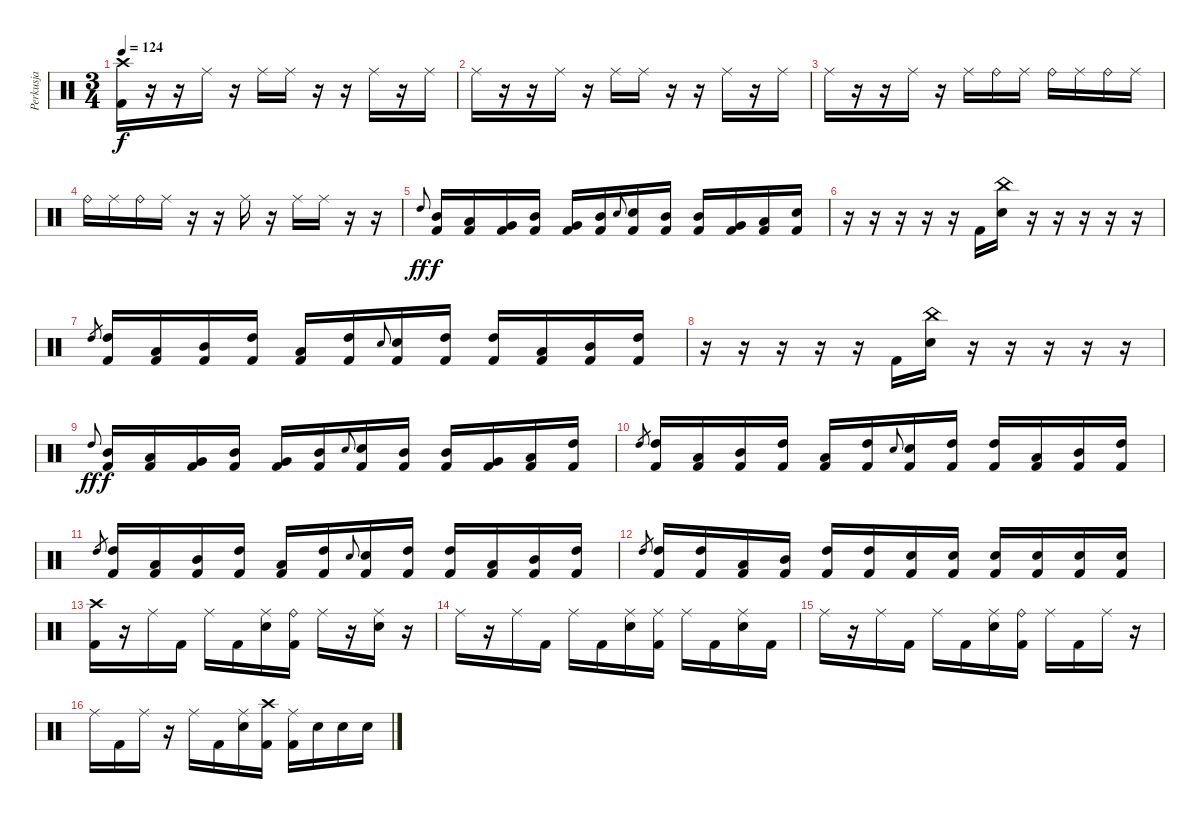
\track ("Perkusja" "Perkusja") {instrument percussion}
\staff {score}
\articulation defaults
\ts (3 4)
\tempo 124
\clef neutral
\ks c
("Kick (hit) 2" "Crash high (hit)").16{dy f} r.16 r.16 "Ride (middle)".16 r.16 "Ride (middle)".16 "Ride (middle)".16 r.16 r.16 "Ride (middle)".16 r.16 "Ride (middle)".16 |
"Ride (middle)".16 r.16 r.16 "Ride (middle)".16 r.16 "Ride (middle)".16 "Ride (middle)".16 r.16 r.16 "Ride (middle)".16 r.16 "Ride (middle)".16 |
"Ride (middle)".16 r.16 r.16 "Ride (middle)".16 r.16 "Ride (middle)".16 "Ride (bell)".16 "Ride (middle)".16 "Ride (bell)".16 "Ride (middle)".16 "Ride (bell)".16 "Ride (middle)".16 |
"Ride (bell)".16 "Ride (middle)".16 "Ride (bell)".16 "Ride (middle)".16 r.16 r.16 "Ride (middle)".16 r.16 "Ride (middle)".16 "Ride (middle)".16 r.16 r.16 |
"High Tom (hit)".8{gr onbeat dy ff} ("Kick (hit) 2" "Mid Tom (hit)").16{dy f} ("Kick (hit) 2" "Low Tom (hit)").16 ("Kick (hit) 2" "Very Low Tom (hit)").16 ("Kick (hit) 2" "Mid Tom (hit)").16 ("Kick (hit) 2" "Very Low Tom (hit)").16 ("Kick (hit) 2" "Mid Tom (hit)").16 "Electric Snare (hit)".8{gr onbeat} ("Kick (hit) 2" "Electric Snare (hit)").16 ("Kick (hit) 2" "Mid Tom (hit)").16 ("Kick (hit) 2" "Mid Tom (hit)").16 ("Kick (hit) 2" "Very Low Tom (hit)").16 ("Kick (hit) 2" "Low Tom (hit)").16 ("Kick (hit) 2" "Electric Snare (hit)").16 |
r.16 r.16 r.16 r.16 r.16 "Kick (hit) 2".16 ("China (hit)" "Electric Snare (hit)").16 r.16 r.16 r.16 r.16 r.16 |
"High Tom (hit)".8{gr} ("Kick (hit) 2" "High Tom (hit)").16 ("Kick (hit) 2" "Low Tom (hit)").16 ("Kick (hit) 2" "Mid Tom (hit)").16 ("Kick (hit) 2" "High Tom (hit)").16 ("Kick (hit) 2" "Low Tom (hit)").16 ("Kick (hit) 2" "High Tom (hit)").16 "Electric Snare (hit)".8{gr onbeat} ("Kick (hit) 2" "Electric Snare (hit)").16 ("Kick (hit) 2" "High Tom (hit)").16 ("Kick (hit) 2" "High Tom (hit)").16 ("Kick (hit) 2" "Low Tom (hit)").16 ("Kick (hit) 2" "Mid Tom (hit)").16 ("Kick (hit) 2" "High Tom (hit)").16 |
r.16 r.16 r.16 r.16 r.16 "Kick (hit) 2".16 ("China (hit)" "Electric Snare (hit)").16 r.16 r.16 r.16 r.16 r.16 |
"High Tom (hit)".8{gr onbeat dy ff} ("Kick (hit) 2" "Mid Tom (hit)").16{dy f} ("Kick (hit) 2" "Low Tom (hit)").16 ("Kick (hit) 2" "Very Low Tom (hit)").16 ("Kick (hit) 2" "Mid Tom (hit)").16 ("Kick (hit) 2" "Very Low Tom (hit)").16 ("Kick (hit) 2" "Mid Tom (hit)").16 "Electric Snare (hit)".8{gr onbeat} ("Kick (hit) 2" "Electric Snare (hit)").16 ("Kick (hit) 2" "Mid Tom (hit)").16 ("Kick (hit) 2" "Mid Tom (hit)").16 ("Kick (hit) 2" "Very Low Tom (hit)").16 ("Kick (hit) 2" "Low Tom (hit)").16 ("Kick (hit) 2" "High Tom (hit)").16 |
"High Tom (hit)".8{gr} ("Kick (hit) 2" "High Tom (hit)").16 ("Kick (hit) 2" "Low Tom (hit)").16 ("Kick (hit) 2" "Mid Tom (hit)").16 ("Kick (hit) 2" "High Tom (hit)").16 ("Kick (hit) 2" "Low Tom (hit)").16 ("Kick (hit) 2" "High Tom (hit)").16 "Electric Snare (hit)".8{gr onbeat} ("Kick (hit) 2" "Electric Snare (hit)").16 ("Kick (hit) 2" "High Tom (hit)").16 ("Kick (hit) 2" "High Tom (hit)").16 ("Kick (hit) 2" "Low Tom (hit)").16 ("Kick (hit) 2" "Mid Tom (hit)").16 ("Kick (hit) 2" "High Tom (hit)").16 |
"High Tom (hit)".8{gr} ("Kick (hit) 2" "High Tom (hit)").16 ("Kick (hit) 2" "Low Tom (hit)").16 ("Kick (hit) 2" "Mid Tom (hit)").16 ("Kick (hit) 2" "High Tom (hit)").16 ("Kick (hit) 2" "Low Tom (hit)").16 ("Kick (hit) 2" "High Tom (hit)").16 "Electric Snare (hit)".8{gr onbeat} ("Kick (hit) 2" "Electric Snare (hit)").16 ("Kick (hit) 2" "High Tom (hit)").16 ("Kick (hit) 2" "High Tom (hit)").16 ("Kick (hit) 2" "Low Tom (hit)").16 ("Kick (hit) 2" "Mid Tom (hit)").16 ("Kick (hit) 2" "High Tom (hit)").16 |
"High Tom (hit)".8{gr} ("Kick (hit) 2" "High Tom (hit)").16 ("Kick (hit) 2" "High Tom (hit)").16 ("Kick (hit) 2" "Low Tom (hit)").16 ("Kick (hit) 2" "Mid Tom (hit)").16 ("Kick (hit) 2" "High Tom (hit)").16 ("Kick (hit) 2" "High Tom (hit)").16 ("Kick (hit) 2" "Electric Snare (hit)").16 ("Kick (hit) 2" "Electric Snare (hit)").16 ("Kick (hit) 2" "Electric Snare (hit)").16 ("Kick (hit) 2" "Electric Snare (hit)").16 ("Kick (hit) 2" "Electric Snare (hit)").16 ("Kick (hit) 2" "Electric Snare (hit)").16 |
("Crash high (hit)" "Kick (hit) 2").16 r.16 "Ride (middle)".16 "Kick (hit) 2".16 "Ride (middle)".16 "Kick (hit) 2".16 ("Ride (middle)" "Electric Snare (hit)").16 ("Ride (bell)" "Kick (hit) 2").16 "Ride (middle)".16 r.16 ("Ride (middle)" "Electric Snare (hit)").16 r.16 |
"Ride (middle)".16 r.16 "Ride (middle)".16 "Kick (hit) 2".16 "Ride (middle)".16 "Kick (hit) 2".16 ("Ride (middle)" "Electric Snare (hit)").16 ("Ride (middle)" "Kick (hit) 2").16 "Ride (middle)".16 "Kick (hit) 2".16 ("Ride (middle)" "Electric Snare (hit)").16 "Kick (hit) 2".16 |
"Ride (middle)".16 r.16 "Ride (middle)".16 "Kick (hit) 2".16 "Ride (middle)".16 "Kick (hit) 2".16 ("Ride (middle)" "Electric Snare (hit)").16 ("Ride (bell)" "Kick (hit) 2").16 "Ride (middle)".16 "Kick (hit) 2".16 "Ride (middle)".16 r.16 |
"Ride (middle)".16 "Kick (hit) 2".16 "Ride (middle)".16 r.16 "Ride (middle)".16 "Kick (hit) 2".16 ("Ride (middle)" "Electric Snare (hit)").16 ("Crash high (hit)" "Kick (hit) 2").16 ("Ride (middle)" "Kick (hit) 2").16 "Electric Snare (hit)".16 "Electric Snare (hit)".16 "Electric Snare (hit)".16
